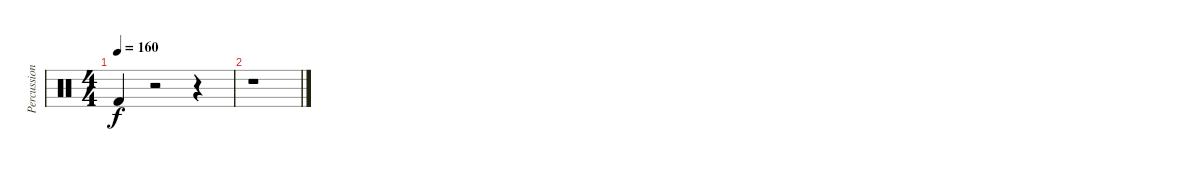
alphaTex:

\track ("Percussions" "Percussion") {instrument percussion}
\staff {score}
\articulation defaults
\ts (4 4)
\tempo 160
\clef neutral
\ks c "Kick (hit) 2".4{dy f}
r.2 r.4 |
r.1
